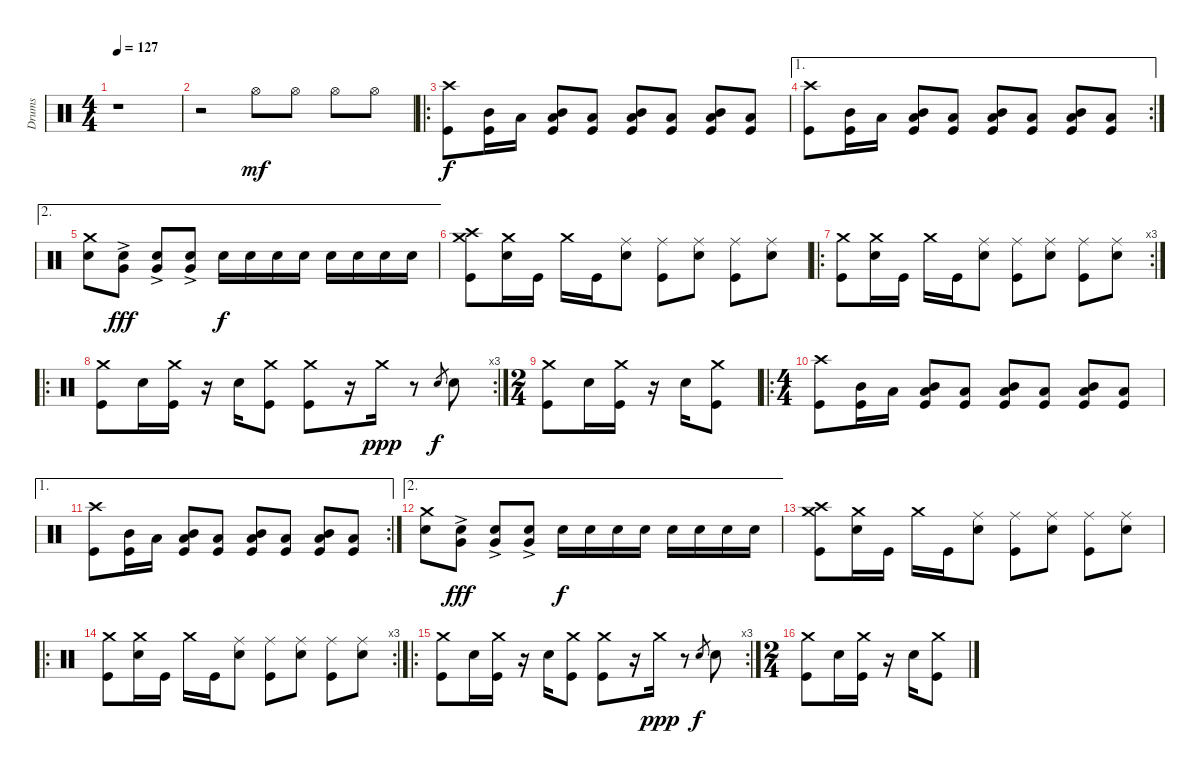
\track ("Drums" "Drums") {instrument percussion}
\staff {score}
\articulation defaults
\ts (4 4)
\tempo 127
\clef neutral
\ks c
r.1{dy mf} |
r.2 "Hi-Hat (open)".8 "Hi-Hat (open)".8 "Hi-Hat (open)".8 "Hi-Hat (open)".8 |
\ro
("Crash high (hit)" "Kick (hit)").8{dy f} ("Mid Tom (hit)" "Kick (hit)").16 "Low Tom (hit)".16 ("Mid Tom (hit)" "Low Tom (hit)" "Kick (hit)").8 ("Low Tom (hit)" "Kick (hit)").8 ("Mid Tom (hit)" "Low Tom (hit)" "Kick (hit)").8 ("Low Tom (hit)" "Kick (hit)").8 ("Mid Tom (hit)" "Low Tom (hit)" "Kick (hit)").8 ("Low Tom (hit)" "Kick (hit)").8 |
\ae 1
\rc 2
("Crash high (hit)" "Kick (hit)").8 ("Mid Tom (hit)" "Kick (hit)").16 "Low Tom (hit)".16 ("Mid Tom (hit)" "Low Tom (hit)" "Kick (hit)").8 ("Low Tom (hit)" "Kick (hit)").8 ("Mid Tom (hit)" "Low Tom (hit)" "Kick (hit)").8 ("Low Tom (hit)" "Kick (hit)").8 ("Mid Tom (hit)" "Low Tom (hit)" "Kick (hit)").8 ("Low Tom (hit)" "Kick (hit)").8 |
\ae 2
("Crash medium (hit)" "Electric Snare (hit)").8 ("Electric Snare (hit)" "Very Low Tom (hit)"{ac}).8{dy fff} ("Electric Snare (hit)" "Very Low Tom (hit)"{ac}).8 ("Electric Snare (hit)" "Very Low Tom (hit)"{ac}).8 "Electric Snare (hit)".16{dy f} "Electric Snare (hit)".16 "Electric Snare (hit)".16 "Electric Snare (hit)".16 "Electric Snare (hit)".16 "Electric Snare (hit)".16 "Electric Snare (hit)".16 "Electric Snare (hit)".16 |
("Crash high (hit)" "Crash medium (hit)" "Kick (hit)").8 ("Crash medium (hit)" "Electric Snare (hit)").16 "Kick (hit)".16 "Crash medium (hit)".16 "Kick (hit)".16 ("Ride (middle)" "Electric Snare (hit)").8 ("Ride (middle)" "Kick (hit)").8 ("Ride (middle)" "Electric Snare (hit)").8 ("Ride (middle)" "Kick (hit)").8 ("Ride (middle)" "Electric Snare (hit)").8 |
\ro
\rc 3
("Crash medium (hit)" "Kick (hit)").8 ("Crash medium (hit)" "Electric Snare (hit)").16 "Kick (hit)".16 "Crash medium (hit)".16 "Kick (hit)".16 ("Ride (middle)" "Electric Snare (hit)").8 ("Ride (middle)" "Kick (hit)").8 ("Ride (middle)" "Electric Snare (hit)").8 ("Ride (middle)" "Kick (hit)").8 ("Ride (middle)" "Electric Snare (hit)").8 |
\ro
\rc 3
("Crash medium (hit)" "Kick (hit)").8 "Electric Snare (hit)".16 ("Crash medium (hit)" "Kick (hit)").16 r.16 "Electric Snare (hit)".16 ("Crash medium (hit)" "Kick (hit)").8 ("Crash medium (hit)" "Kick (hit)").8 r.16 "Crash medium (hit)".16{dy ppp} r.8 "Electric Snare (hit)".8{gr dy f} "Electric Snare (hit)".8 |
\ts (2 4)
("Crash medium (hit)" "Kick (hit)").8 "Electric Snare (hit)".16 ("Crash medium (hit)" "Kick (hit)").16 r.16 "Electric Snare (hit)".16 ("Crash medium (hit)" "Kick (hit)").8 |
\ro
\ts (4 4)
("Crash high (hit)" "Kick (hit)").8 ("Mid Tom (hit)" "Kick (hit)").16 "Low Tom (hit)".16 ("Mid Tom (hit)" "Low Tom (hit)" "Kick (hit)").8 ("Low Tom (hit)" "Kick (hit)").8 ("Mid Tom (hit)" "Low Tom (hit)" "Kick (hit)").8 ("Low Tom (hit)" "Kick (hit)").8 ("Mid Tom (hit)" "Low Tom (hit)" "Kick (hit)").8 ("Low Tom (hit)" "Kick (hit)").8 |
\ae 1
\rc 2
("Crash high (hit)" "Kick (hit)").8 ("Mid Tom (hit)" "Kick (hit)").16 "Low Tom (hit)".16 ("Mid Tom (hit)" "Low Tom (hit)" "Kick (hit)").8 ("Low Tom (hit)" "Kick (hit)").8 ("Mid Tom (hit)" "Low Tom (hit)" "Kick (hit)").8 ("Low Tom (hit)" "Kick (hit)").8 ("Mid Tom (hit)" "Low Tom (hit)" "Kick (hit)").8 ("Low Tom (hit)" "Kick (hit)").8 |
\ae 2
("Crash medium (hit)" "Electric Snare (hit)").8 ("Electric Snare (hit)" "Very Low Tom (hit)"{ac}).8{dy fff} ("Electric Snare (hit)" "Very Low Tom (hit)"{ac}).8 ("Electric Snare (hit)" "Very Low Tom (hit)"{ac}).8 "Electric Snare (hit)".16{dy f} "Electric Snare (hit)".16 "Electric Snare (hit)".16 "Electric Snare (hit)".16 "Electric Snare (hit)".16 "Electric Snare (hit)".16 "Electric Snare (hit)".16 "Electric Snare (hit)".16 |
("Crash high (hit)" "Crash medium (hit)" "Kick (hit)").8 ("Crash medium (hit)" "Electric Snare (hit)").16 "Kick (hit)".16 "Crash medium (hit)".16 "Kick (hit)".16 ("Ride (middle)" "Electric Snare (hit)").8 ("Ride (middle)" "Kick (hit)").8 ("Ride (middle)" "Electric Snare (hit)").8 ("Ride (middle)" "Kick (hit)").8 ("Ride (middle)" "Electric Snare (hit)").8 |
\ro
\rc 3
("Crash medium (hit)" "Kick (hit)").8 ("Crash medium (hit)" "Electric Snare (hit)").16 "Kick (hit)".16 "Crash medium (hit)".16 "Kick (hit)".16 ("Ride (middle)" "Electric Snare (hit)").8 ("Ride (middle)" "Kick (hit)").8 ("Ride (middle)" "Electric Snare (hit)").8 ("Ride (middle)" "Kick (hit)").8 ("Ride (middle)" "Electric Snare (hit)").8 |
\ro
\rc 3
("Crash medium (hit)" "Kick (hit)").8 "Electric Snare (hit)".16 ("Crash medium (hit)" "Kick (hit)").16 r.16 "Electric Snare (hit)".16 ("Crash medium (hit)" "Kick (hit)").8 ("Crash medium (hit)" "Kick (hit)").8 r.16 "Crash medium (hit)".16{dy ppp} r.8 "Electric Snare (hit)".8{gr dy f} "Electric Snare (hit)".8 |
\ts (2 4)
("Crash medium (hit)" "Kick (hit)").8 "Electric Snare (hit)".16 ("Crash medium (hit)" "Kick (hit)").16 r.16 "Electric Snare (hit)".16 ("Crash medium (hit)" "Kick (hit)").8
